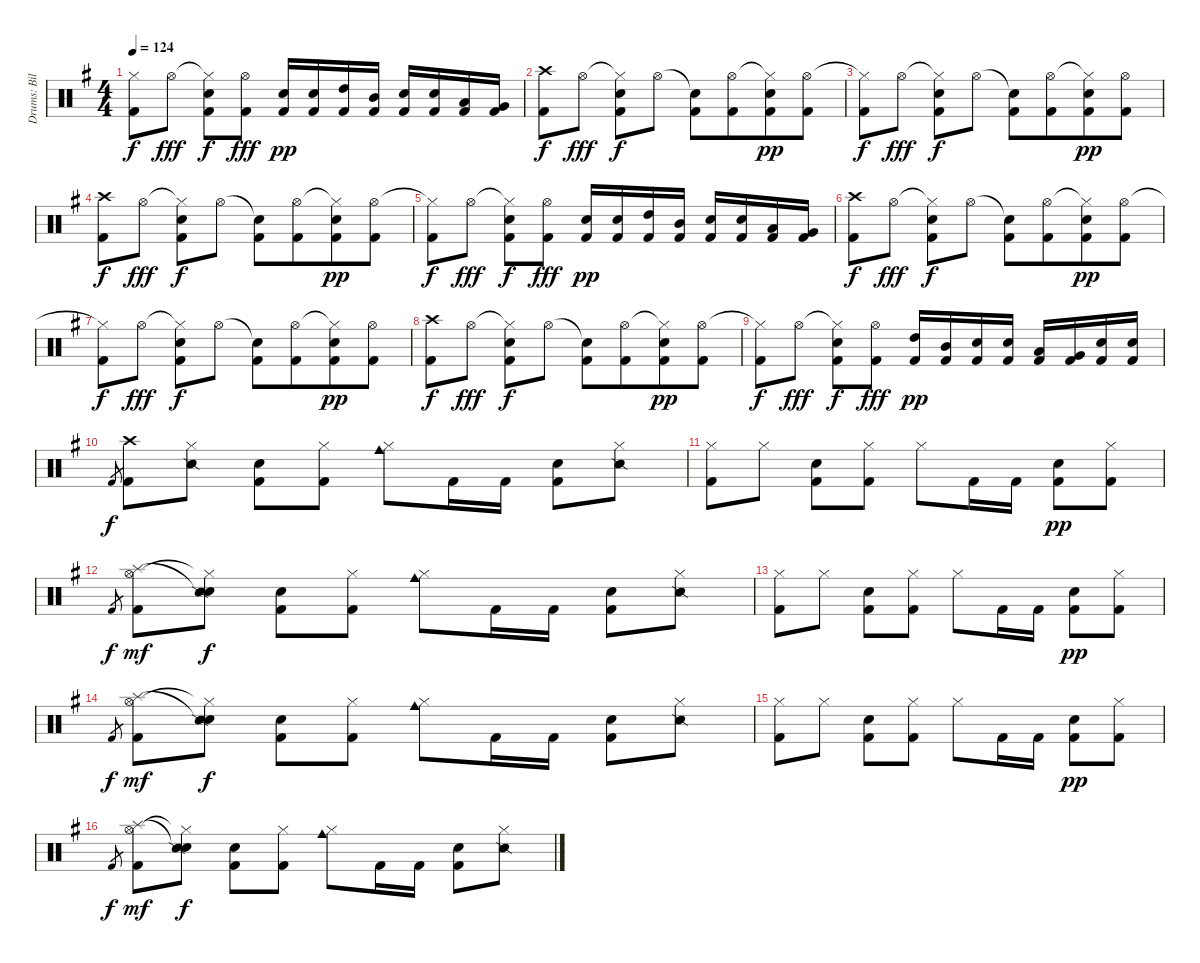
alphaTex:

\track ("Drums: Bill" "Drums: Bil") {instrument percussion}
\staff {score}
\articulation defaults
\ts (4 4)
\tempo 124
\clef neutral
\ks g
("Hi-Hat (closed)"{t} "Kick (hit) 2").8{dy f} "Hi-Hat (open)".8{dy fff} ("Hi-Hat (closed)"{t} "Electric Snare (hit)" "Kick (hit) 2").8{dy f} ("Hi-Hat (open)" "Kick (hit) 2").8{dy fff} ("Electric Snare (hit)" "Kick (hit) 2").16{dy pp} ("Electric Snare (hit)" "Kick (hit) 2").16 ("High Tom (hit)" "Kick (hit) 2").16 ("Mid Tom (hit)" "Kick (hit) 2").16 ("Electric Snare (hit)" "Kick (hit) 2").16 ("Electric Snare (hit)" "Kick (hit) 2").16 ("Low Tom (hit)" "Kick (hit) 2").16 ("Very Low Tom (hit)" "Kick (hit) 2").16 |
("Crash high (hit)" "Kick (hit) 2").8{dy f} "Hi-Hat (open)".8{dy fff} ("Hi-Hat (closed)"{t} "Electric Snare (hit)" "Kick (hit) 2").8{dy f} "Hi-Hat (open)".8 ("Snare (hit)"{t} "Kick (hit) 2").8 ("Hi-Hat (open)" "Kick (hit) 2").8{beam merge} ("Hi-Hat (closed)"{t} "Electric Snare (hit)" "Kick (hit) 2").8{dy pp} ("Hi-Hat (open)" "Kick (hit) 2").8 |
("Hi-Hat (closed)"{t} "Kick (hit) 2").8{dy f} "Hi-Hat (open)".8{dy fff} ("Hi-Hat (closed)"{t} "Electric Snare (hit)" "Kick (hit) 2").8{dy f} "Hi-Hat (open)".8 ("Snare (hit)"{t} "Kick (hit) 2").8 ("Hi-Hat (open)" "Kick (hit) 2").8{beam merge} ("Hi-Hat (closed)"{t} "Electric Snare (hit)" "Kick (hit) 2").8{dy pp} ("Hi-Hat (open)" "Kick (hit) 2").8 |
("Crash high (hit)" "Kick (hit) 2").8{dy f} "Hi-Hat (open)".8{dy fff} ("Hi-Hat (closed)"{t} "Electric Snare (hit)" "Kick (hit) 2").8{dy f} "Hi-Hat (open)".8 ("Snare (hit)"{t} "Kick (hit) 2").8 ("Hi-Hat (open)" "Kick (hit) 2").8{beam merge} ("Hi-Hat (closed)"{t} "Electric Snare (hit)" "Kick (hit) 2").8{dy pp} ("Hi-Hat (open)" "Kick (hit) 2").8 |
("Hi-Hat (closed)"{t} "Kick (hit) 2").8{dy f} "Hi-Hat (open)".8{dy fff} ("Hi-Hat (closed)"{t} "Electric Snare (hit)" "Kick (hit) 2").8{dy f} ("Hi-Hat (open)" "Kick (hit) 2").8{dy fff} ("Electric Snare (hit)" "Kick (hit) 2").16{dy pp} ("Electric Snare (hit)" "Kick (hit) 2").16 ("High Tom (hit)" "Kick (hit) 2").16 ("Mid Tom (hit)" "Kick (hit) 2").16 ("Electric Snare (hit)" "Kick (hit) 2").16 ("Electric Snare (hit)" "Kick (hit) 2").16 ("Low Tom (hit)" "Kick (hit) 2").16 ("Very Low Tom (hit)" "Kick (hit) 2").16 |
("Crash high (hit)" "Kick (hit) 2").8{dy f} "Hi-Hat (open)".8{dy fff} ("Hi-Hat (closed)"{t} "Electric Snare (hit)" "Kick (hit) 2").8{dy f} "Hi-Hat (open)".8 ("Snare (hit)"{t} "Kick (hit) 2").8 ("Hi-Hat (open)" "Kick (hit) 2").8{beam merge} ("Hi-Hat (closed)"{t} "Electric Snare (hit)" "Kick (hit) 2").8{dy pp} ("Hi-Hat (open)" "Kick (hit) 2").8 |
("Hi-Hat (closed)"{t} "Kick (hit) 2").8{dy f} "Hi-Hat (open)".8{dy fff} ("Hi-Hat (closed)"{t} "Electric Snare (hit)" "Kick (hit) 2").8{dy f} "Hi-Hat (open)".8 ("Snare (hit)"{t} "Kick (hit) 2").8 ("Hi-Hat (open)" "Kick (hit) 2").8{beam merge} ("Hi-Hat (closed)"{t} "Electric Snare (hit)" "Kick (hit) 2").8{dy pp} ("Hi-Hat (open)" "Kick (hit) 2").8 |
("Crash high (hit)" "Kick (hit) 2").8{dy f} "Hi-Hat (open)".8{dy fff} ("Hi-Hat (closed)"{t} "Electric Snare (hit)" "Kick (hit) 2").8{dy f} "Hi-Hat (open)".8 ("Snare (hit)"{t} "Kick (hit) 2").8 ("Hi-Hat (open)" "Kick (hit) 2").8{beam merge} ("Hi-Hat (closed)"{t} "Electric Snare (hit)" "Kick (hit) 2").8{dy pp} ("Hi-Hat (open)" "Kick (hit) 2").8 |
("Hi-Hat (closed)"{t} "Kick (hit) 2").8{dy f} "Hi-Hat (open)".8{dy fff} ("Hi-Hat (closed)"{t} "Electric Snare (hit)" "Kick (hit) 2").8{dy f} ("Hi-Hat (open)" "Kick (hit) 2").8{dy fff} ("High Tom (hit)" "Kick (hit) 2").16{dy pp} ("Mid Tom (hit)" "Kick (hit) 2").16 ("Electric Snare (hit)" "Kick (hit) 2").16 ("Electric Snare (hit)" "Kick (hit) 2").16 ("Low Tom (hit)" "Kick (hit) 2").16 ("Very Low Tom (hit)" "Kick (hit) 2").16 ("Electric Snare (hit)" "Kick (hit) 2").16 ("Electric Snare (hit)" "Kick (hit) 2").16 |
"Kick (hit) 2".8{gr dy f} ("Crash high (hit)" "Kick (hit) 2").8 ("Hi-Hat (closed)" "Snare (side stick) 2").8 ("Electric Snare (hit)" "Kick (hit) 2").8 ("Hi-Hat (closed)" "Kick (hit) 2").8 ("Hi-Hat (closed)" "Cowbell medium (hit)").8 "Kick (hit) 2".16 "Kick (hit) 2".16 ("Electric Snare (hit)" "Kick (hit) 2").8 ("Hi-Hat (closed)" "Snare (side stick) 2").8 |
("Hi-Hat (closed)" "Kick (hit) 2").8 "Hi-Hat (closed)".8 ("Electric Snare (hit)" "Kick (hit) 2").8 ("Hi-Hat (closed)" "Kick (hit) 2").8 "Hi-Hat (closed)".8 "Kick (hit) 2".16 "Kick (hit) 2".16 ("Electric Snare (hit)" "Kick (hit) 2").8{dy pp} ("Hi-Hat (closed)" "Kick (hit) 2").8 |
"Kick (hit) 2".8{gr dy f} ("Splash (hit)" "Hi-Hat (open)" "Kick (hit) 2").8{dy mf} ("Snare (hit)"{t} "Hi-Hat (closed)"{t} "Snare (side stick) 2").8{dy f} ("Electric Snare (hit)" "Kick (hit) 2").8 ("Hi-Hat (closed)" "Kick (hit) 2").8 ("Hi-Hat (closed)" "Cowbell medium (hit)").8 "Kick (hit) 2".16 "Kick (hit) 2".16 ("Electric Snare (hit)" "Kick (hit) 2").8 ("Hi-Hat (closed)" "Snare (side stick) 2").8 |
("Hi-Hat (closed)" "Kick (hit) 2").8 "Hi-Hat (closed)".8 ("Electric Snare (hit)" "Kick (hit) 2").8 ("Hi-Hat (closed)" "Kick (hit) 2").8 "Hi-Hat (closed)".8 "Kick (hit) 2".16 "Kick (hit) 2".16 ("Electric Snare (hit)" "Kick (hit) 2").8{dy pp} ("Hi-Hat (closed)" "Kick (hit) 2").8 |
"Kick (hit) 2".8{gr dy f} ("Splash (hit)" "Hi-Hat (open)" "Kick (hit) 2").8{dy mf} ("Snare (hit)"{t} "Hi-Hat (closed)"{t} "Snare (side stick) 2").8{dy f} ("Electric Snare (hit)" "Kick (hit) 2").8 ("Hi-Hat (closed)" "Kick (hit) 2").8 ("Hi-Hat (closed)" "Cowbell medium (hit)").8 "Kick (hit) 2".16 "Kick (hit) 2".16 ("Electric Snare (hit)" "Kick (hit) 2").8 ("Hi-Hat (closed)" "Snare (side stick) 2").8 |
("Hi-Hat (closed)" "Kick (hit) 2").8 "Hi-Hat (closed)".8 ("Electric Snare (hit)" "Kick (hit) 2").8 ("Hi-Hat (closed)" "Kick (hit) 2").8 "Hi-Hat (closed)".8 "Kick (hit) 2".16 "Kick (hit) 2".16 ("Electric Snare (hit)" "Kick (hit) 2").8{dy pp} ("Hi-Hat (closed)" "Kick (hit) 2").8 |
"Kick (hit) 2".8{gr dy f} ("Splash (hit)" "Hi-Hat (open)" "Kick (hit) 2").8{dy mf} ("Snare (hit)"{t} "Hi-Hat (closed)"{t} "Snare (side stick) 2").8{dy f} ("Electric Snare (hit)" "Kick (hit) 2").8 ("Hi-Hat (closed)" "Kick (hit) 2").8 ("Hi-Hat (closed)" "Cowbell medium (hit)").8 "Kick (hit) 2".16 "Kick (hit) 2".16 ("Electric Snare (hit)" "Kick (hit) 2").8 ("Hi-Hat (closed)" "Snare (side stick) 2").8
